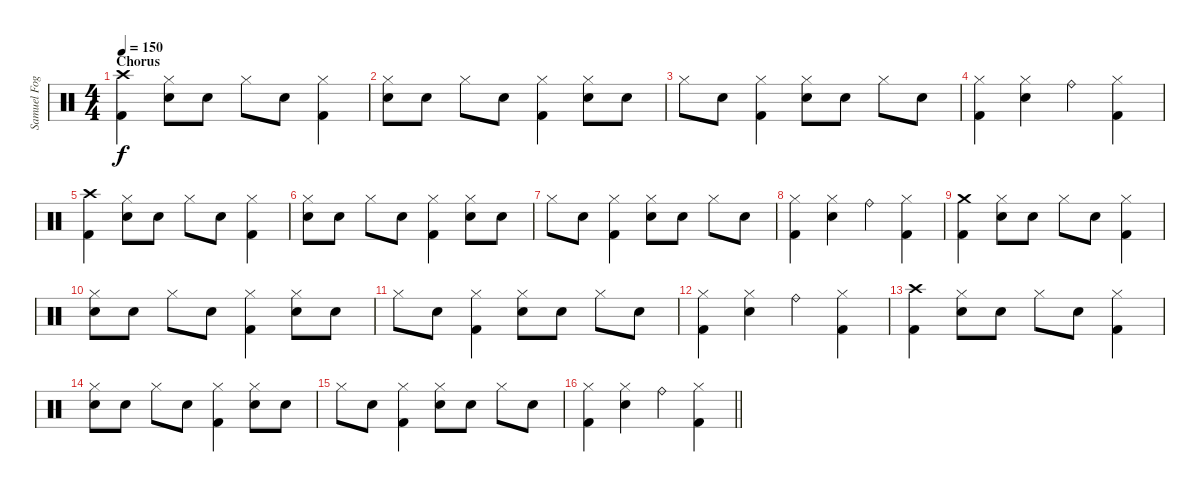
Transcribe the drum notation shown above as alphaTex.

\track ("Samuel Fogarino" "Samuel Fog") {instrument percussion}
\staff {score}
\articulation defaults
\ts (4 4)
\section ("" "Chorus")
\tempo 150
\clef neutral
\ks c
("Crash high (hit)" "Kick (hit) 2").4{dy f} ("Hi-Hat (closed)" "Electric Snare (hit)").8 "Electric Snare (hit)".8 "Hi-Hat (closed)".8 "Electric Snare (hit)".8 ("Hi-Hat (closed)" "Kick (hit) 2").4 |
("Hi-Hat (closed)" "Electric Snare (hit)").8 "Electric Snare (hit)".8 "Hi-Hat (closed)".8 "Electric Snare (hit)".8 ("Hi-Hat (closed)" "Kick (hit) 2").4 ("Hi-Hat (closed)" "Electric Snare (hit)").8 "Electric Snare (hit)".8 |
"Hi-Hat (closed)".8 "Electric Snare (hit)".8 ("Hi-Hat (closed)" "Kick (hit) 2").4 ("Hi-Hat (closed)" "Electric Snare (hit)").8 "Electric Snare (hit)".8 "Hi-Hat (closed)".8 "Electric Snare (hit)".8 |
("Hi-Hat (closed)" "Kick (hit) 2").4 ("Hi-Hat (closed)" "Electric Snare (hit)").4 "Ride (bell)".4 ("Hi-Hat (closed)" "Kick (hit) 2").4 |
("Crash high (hit)" "Kick (hit) 2").4 ("Hi-Hat (closed)" "Electric Snare (hit)").8 "Electric Snare (hit)".8 "Hi-Hat (closed)".8 "Electric Snare (hit)".8 ("Hi-Hat (closed)" "Kick (hit) 2").4 |
("Hi-Hat (closed)" "Electric Snare (hit)").8 "Electric Snare (hit)".8 "Hi-Hat (closed)".8 "Electric Snare (hit)".8 ("Hi-Hat (closed)" "Kick (hit) 2").4 ("Hi-Hat (closed)" "Electric Snare (hit)").8 "Electric Snare (hit)".8 |
"Hi-Hat (closed)".8 "Electric Snare (hit)".8 ("Hi-Hat (closed)" "Kick (hit) 2").4 ("Hi-Hat (closed)" "Electric Snare (hit)").8 "Electric Snare (hit)".8 "Hi-Hat (closed)".8 "Electric Snare (hit)".8 |
("Hi-Hat (closed)" "Kick (hit) 2").4 ("Hi-Hat (closed)" "Electric Snare (hit)").4 "Ride (bell)".4 ("Hi-Hat (closed)" "Kick (hit) 2").4 |
("Crash medium (hit)" "Kick (hit) 2").4 ("Hi-Hat (closed)" "Electric Snare (hit)").8 "Electric Snare (hit)".8 "Hi-Hat (closed)".8 "Electric Snare (hit)".8 ("Hi-Hat (closed)" "Kick (hit) 2").4 |
("Hi-Hat (closed)" "Electric Snare (hit)").8 "Electric Snare (hit)".8 "Hi-Hat (closed)".8 "Electric Snare (hit)".8 ("Hi-Hat (closed)" "Kick (hit) 2").4 ("Hi-Hat (closed)" "Electric Snare (hit)").8 "Electric Snare (hit)".8 |
"Hi-Hat (closed)".8 "Electric Snare (hit)".8 ("Hi-Hat (closed)" "Kick (hit) 2").4 ("Hi-Hat (closed)" "Electric Snare (hit)").8 "Electric Snare (hit)".8 "Hi-Hat (closed)".8 "Electric Snare (hit)".8 |
("Hi-Hat (closed)" "Kick (hit) 2").4 ("Hi-Hat (closed)" "Electric Snare (hit)").4 "Ride (bell)".4 ("Hi-Hat (closed)" "Kick (hit) 2").4 |
("Crash high (hit)" "Kick (hit) 2").4 ("Hi-Hat (closed)" "Electric Snare (hit)").8 "Electric Snare (hit)".8 "Hi-Hat (closed)".8 "Electric Snare (hit)".8 ("Hi-Hat (closed)" "Kick (hit) 2").4 |
("Hi-Hat (closed)" "Electric Snare (hit)").8 "Electric Snare (hit)".8 "Hi-Hat (closed)".8 "Electric Snare (hit)".8 ("Hi-Hat (closed)" "Kick (hit) 2").4 ("Hi-Hat (closed)" "Electric Snare (hit)").8 "Electric Snare (hit)".8 |
"Hi-Hat (closed)".8 "Electric Snare (hit)".8 ("Hi-Hat (closed)" "Kick (hit) 2").4 ("Hi-Hat (closed)" "Electric Snare (hit)").8 "Electric Snare (hit)".8 "Hi-Hat (closed)".8 "Electric Snare (hit)".8 |
\barLineRight lightlight
("Hi-Hat (closed)" "Kick (hit) 2").4 ("Hi-Hat (closed)" "Electric Snare (hit)").4 "Ride (bell)".4 ("Hi-Hat (closed)" "Kick (hit) 2").4
